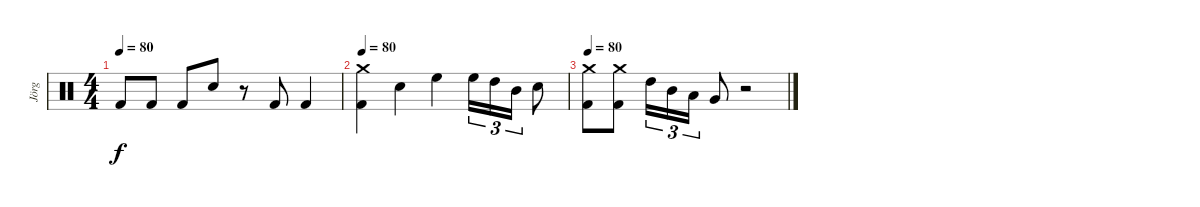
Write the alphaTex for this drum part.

\track ("Jörg" "Jörg") {instrument percussion}
\staff {score}
\articulation defaults
\ts (4 4)
\tempo 80
\clef neutral
\ks c "Kick (hit) 2".8{dy f} "Kick (hit) 2".8 "Kick (hit) 2".8 "Snare (hit) 2".8
r.8 "Kick (hit) 2".8 "Kick (hit) 2".4 |
\tempo 80
("Kick (hit) 2" "Crash medium (hit)").4 "Snare (hit) 2".4 "High Floor Tom (hit)".4 "High Floor Tom (hit)".16{tu (3 2)} "High Tom (hit)".16{tu (3 2)} "Mid Tom (hit)".16{tu (3 2)} "Snare (hit) 2".8 |
\tempo 80
("Kick (hit) 2" "Crash medium (hit)").8 ("Kick (hit) 2" "Crash medium (hit)").8 "High Tom (hit)".16{tu (3 2)} "Mid Tom (hit)".16{tu (3 2)} "Low Tom (hit)".16{tu (3 2)} "Very Low Tom (hit)".8 r.2
